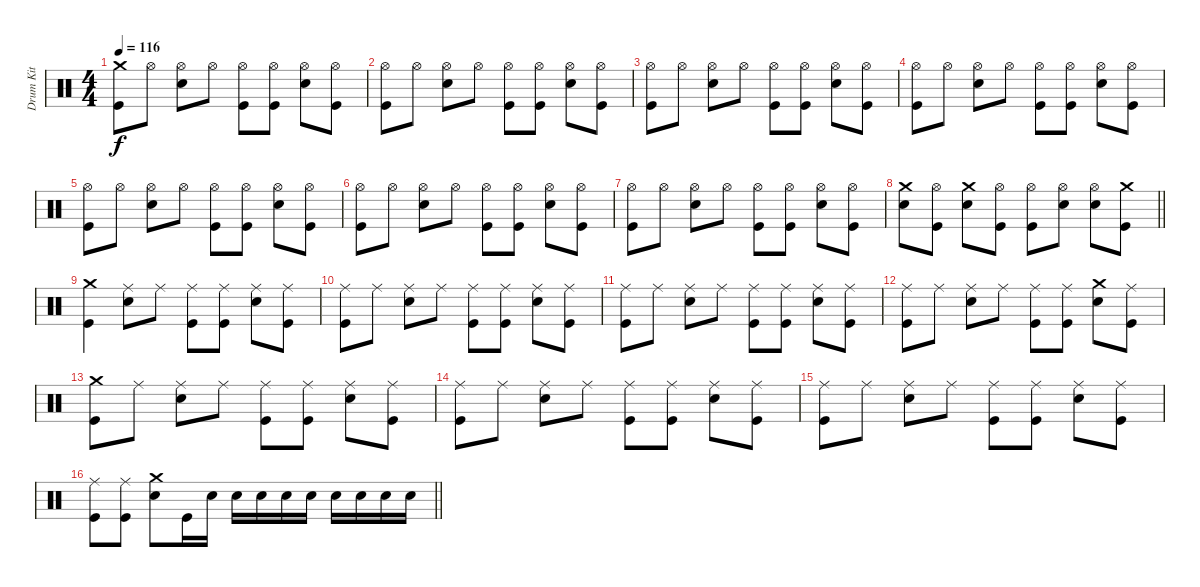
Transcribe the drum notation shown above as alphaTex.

\track ("Drum Kit" "Drum Kit") {instrument percussion}
\staff {score}
\articulation defaults
\ts (4 4)
\tempo 116
\clef neutral
\ks c
("Crash medium (hit)" "Kick (hit)").8{dy f} "Hi-Hat (open)".8 ("Hi-Hat (open)" "Snare (hit) 2").8 "Hi-Hat (open)".8 ("Hi-Hat (open)" "Kick (hit)").8 ("Hi-Hat (open)" "Kick (hit)").8 ("Hi-Hat (open)" "Snare (hit) 2").8 ("Hi-Hat (open)" "Kick (hit)").8 |
("Hi-Hat (open)" "Kick (hit)").8 "Hi-Hat (open)".8 ("Hi-Hat (open)" "Snare (hit) 2").8 "Hi-Hat (open)".8 ("Hi-Hat (open)" "Kick (hit)").8 ("Hi-Hat (open)" "Kick (hit)").8 ("Hi-Hat (open)" "Snare (hit) 2").8 ("Hi-Hat (open)" "Kick (hit)").8 |
("Hi-Hat (open)" "Kick (hit)").8 "Hi-Hat (open)".8 ("Hi-Hat (open)" "Snare (hit) 2").8 "Hi-Hat (open)".8 ("Hi-Hat (open)" "Kick (hit)").8 ("Hi-Hat (open)" "Kick (hit)").8 ("Hi-Hat (open)" "Snare (hit) 2").8 ("Hi-Hat (open)" "Kick (hit)").8 |
("Hi-Hat (open)" "Kick (hit)").8 "Hi-Hat (open)".8 ("Hi-Hat (open)" "Snare (hit) 2").8 "Hi-Hat (open)".8 ("Hi-Hat (open)" "Kick (hit)").8 ("Hi-Hat (open)" "Kick (hit)").8 ("Hi-Hat (open)" "Snare (hit) 2").8 ("Hi-Hat (open)" "Kick (hit)").8 |
("Hi-Hat (open)" "Kick (hit)").8 "Hi-Hat (open)".8 ("Hi-Hat (open)" "Snare (hit) 2").8 "Hi-Hat (open)".8 ("Hi-Hat (open)" "Kick (hit)").8 ("Hi-Hat (open)" "Kick (hit)").8 ("Hi-Hat (open)" "Snare (hit) 2").8 ("Hi-Hat (open)" "Kick (hit)").8 |
("Hi-Hat (open)" "Kick (hit)").8 "Hi-Hat (open)".8 ("Hi-Hat (open)" "Snare (hit) 2").8 "Hi-Hat (open)".8 ("Hi-Hat (open)" "Kick (hit)").8 ("Hi-Hat (open)" "Kick (hit)").8 ("Hi-Hat (open)" "Snare (hit) 2").8 ("Hi-Hat (open)" "Kick (hit)").8 |
("Hi-Hat (open)" "Kick (hit)").8 "Hi-Hat (open)".8 ("Hi-Hat (open)" "Snare (hit) 2").8 "Hi-Hat (open)".8 ("Hi-Hat (open)" "Kick (hit)").8 ("Hi-Hat (open)" "Kick (hit)").8 ("Hi-Hat (open)" "Snare (hit) 2").8 ("Hi-Hat (open)" "Kick (hit)").8 |
\barLineRight lightlight
("Crash medium (hit)" "Snare (hit) 2").8 ("Hi-Hat (open)" "Kick (hit)").8 ("Crash medium (hit)" "Snare (hit) 2").8 ("Hi-Hat (open)" "Kick (hit)").8 ("Hi-Hat (open)" "Kick (hit)").8 ("Hi-Hat (open)" "Snare (hit) 2").8 ("Hi-Hat (open)" "Snare (hit) 2").8 ("Crash medium (hit)" "Kick (hit)").8 |
("Crash medium (hit)" "Kick (hit)").4 ("Ride (middle)" "Snare (hit) 2").8 "Ride (middle)".8 ("Ride (middle)" "Kick (hit)").8 ("Ride (middle)" "Kick (hit)").8 ("Ride (middle)" "Snare (hit) 2").8 ("Ride (middle)" "Kick (hit)").8 |
("Ride (middle)" "Kick (hit)").8 "Ride (middle)".8 ("Ride (middle)" "Snare (hit) 2").8 "Ride (middle)".8 ("Ride (middle)" "Kick (hit)").8 ("Ride (middle)" "Kick (hit)").8 ("Ride (middle)" "Snare (hit) 2").8 ("Ride (middle)" "Kick (hit)").8 |
("Ride (middle)" "Kick (hit)").8 "Ride (middle)".8 ("Ride (middle)" "Snare (hit) 2").8 "Ride (middle)".8 ("Ride (middle)" "Kick (hit)").8 ("Ride (middle)" "Kick (hit)").8 ("Ride (middle)" "Snare (hit) 2").8 ("Ride (middle)" "Kick (hit)").8 |
("Ride (middle)" "Kick (hit)").8 "Ride (middle)".8 ("Ride (middle)" "Snare (hit) 2").8 "Ride (middle)".8 ("Ride (middle)" "Kick (hit)").8 ("Ride (middle)" "Kick (hit)").8 ("Crash medium (hit)" "Snare (hit) 2").8 ("Ride (middle)" "Kick (hit)").8 |
("Crash medium (hit)" "Kick (hit)").8 "Ride (middle)".8 ("Ride (middle)" "Snare (hit) 2").8 "Ride (middle)".8 ("Ride (middle)" "Kick (hit)").8 ("Ride (middle)" "Kick (hit)").8 ("Ride (middle)" "Snare (hit) 2").8 ("Ride (middle)" "Kick (hit)").8 |
("Ride (middle)" "Kick (hit)").8 "Ride (middle)".8 ("Ride (middle)" "Snare (hit) 2").8 "Ride (middle)".8 ("Ride (middle)" "Kick (hit)").8 ("Ride (middle)" "Kick (hit)").8 ("Ride (middle)" "Snare (hit) 2").8 ("Ride (middle)" "Kick (hit)").8 |
("Ride (middle)" "Kick (hit)").8 "Ride (middle)".8 ("Ride (middle)" "Snare (hit) 2").8 "Ride (middle)".8 ("Ride (middle)" "Kick (hit)").8 ("Ride (middle)" "Kick (hit)").8 ("Ride (middle)" "Snare (hit) 2").8 ("Ride (middle)" "Kick (hit)").8 |
\barLineRight lightlight
("Ride (middle)" "Kick (hit)").8 ("Ride (middle)" "Kick (hit)").8 ("Crash medium (hit)" "Snare (hit) 2").8 "Kick (hit)".16 "Snare (hit) 2".16 "Snare (hit) 2".16 "Snare (hit) 2".16 "Snare (hit) 2".16 "Snare (hit) 2".16 "Snare (hit) 2".16 "Snare (hit) 2".16 "Snare (hit) 2".16 "Snare (hit) 2".16
